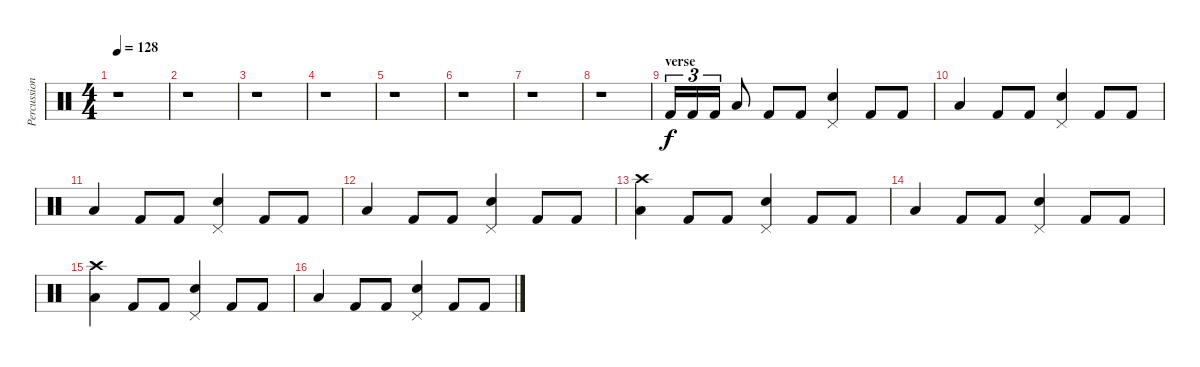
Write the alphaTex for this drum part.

\track ("Percussion" "Percussion") {instrument percussion}
\staff {score}
\articulation defaults
\ts (4 4)
\tempo 128
\clef neutral
\ks c
r.1{dy f} |
r.1 |
r.1 |
r.1 |
r.1 |
r.1 |
r.1 |
r.1 |
\section ("" "verse")
"Kick (hit) 2".16{tu (3 2)} "Kick (hit) 2".16{tu (3 2)} "Kick (hit) 2".16{tu (3 2)} "Low Tom (hit)".8 "Kick (hit) 2".8 "Kick (hit) 2".8 ("Pedal Hi-Hat (hit)" "Electric Snare (hit)").4 "Kick (hit) 2".8 "Kick (hit) 2".8 |
"Low Tom (hit)".4 "Kick (hit) 2".8 "Kick (hit) 2".8 ("Pedal Hi-Hat (hit)" "Electric Snare (hit)").4 "Kick (hit) 2".8 "Kick (hit) 2".8 |
"Low Tom (hit)".4 "Kick (hit) 2".8 "Kick (hit) 2".8 ("Pedal Hi-Hat (hit)" "Electric Snare (hit)").4 "Kick (hit) 2".8 "Kick (hit) 2".8 |
"Low Tom (hit)".4 "Kick (hit) 2".8 "Kick (hit) 2".8 ("Pedal Hi-Hat (hit)" "Electric Snare (hit)").4 "Kick (hit) 2".8 "Kick (hit) 2".8 |
("Crash high (hit)" "Low Tom (hit)").4 "Kick (hit) 2".8 "Kick (hit) 2".8 ("Pedal Hi-Hat (hit)" "Electric Snare (hit)").4 "Kick (hit) 2".8 "Kick (hit) 2".8 |
"Low Tom (hit)".4 "Kick (hit) 2".8 "Kick (hit) 2".8 ("Pedal Hi-Hat (hit)" "Electric Snare (hit)").4 "Kick (hit) 2".8 "Kick (hit) 2".8 |
("Crash high (hit)" "Low Tom (hit)").4 "Kick (hit) 2".8 "Kick (hit) 2".8 ("Pedal Hi-Hat (hit)" "Electric Snare (hit)").4 "Kick (hit) 2".8 "Kick (hit) 2".8 |
"Low Tom (hit)".4 "Kick (hit) 2".8 "Kick (hit) 2".8 ("Pedal Hi-Hat (hit)" "Electric Snare (hit)").4 "Kick (hit) 2".8 "Kick (hit) 2".8
